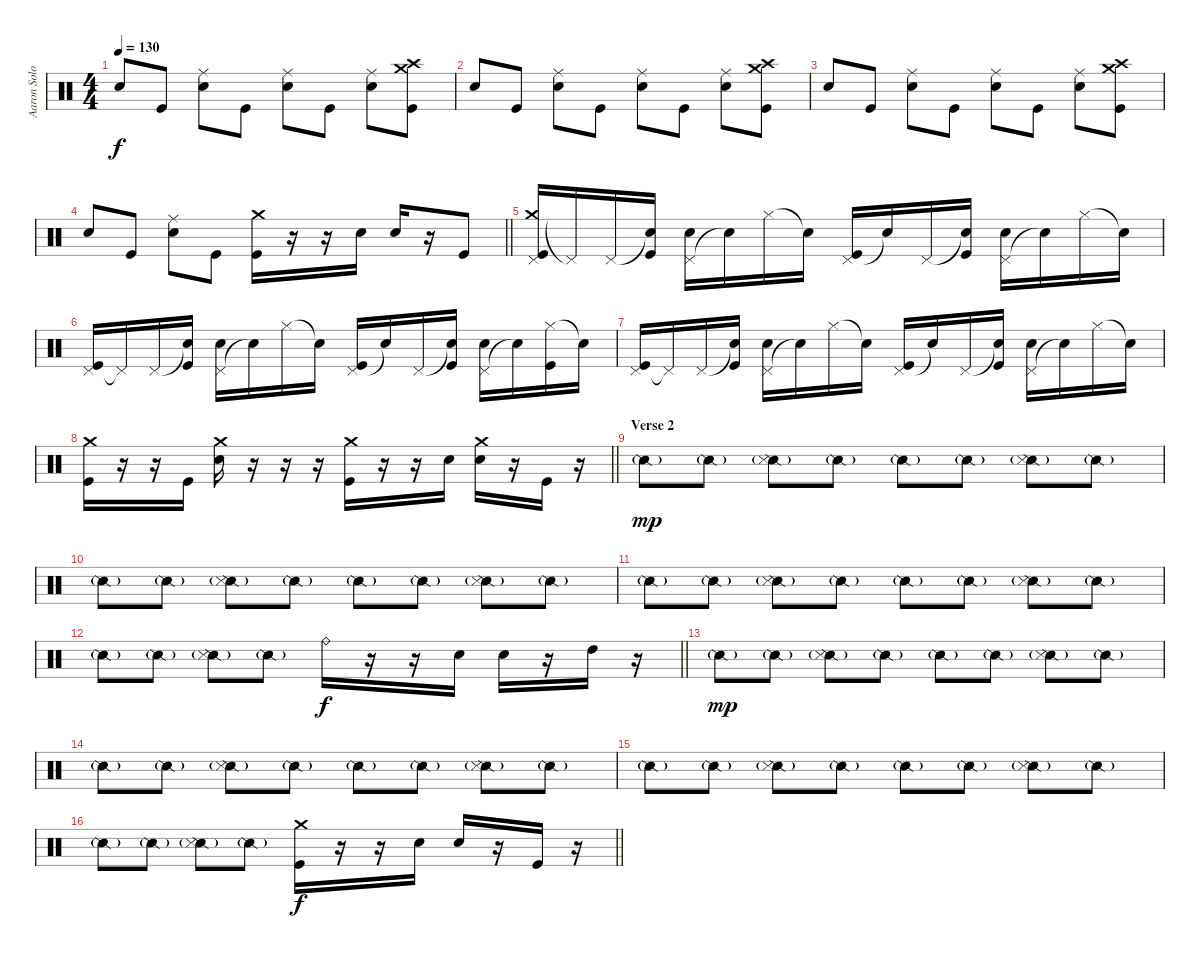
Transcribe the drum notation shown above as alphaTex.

\track ("Aaron Solowoniuk" "Aaron Solo") {instrument percussion}
\staff {score}
\articulation defaults
\ts (4 4)
\tempo 130
\clef neutral
\ks c "Electric Snare (hit)".8{dy f} "Kick (hit)".8
("Ride (middle)" "Electric Snare (hit)").8 "Kick (hit)".8 ("Ride (middle)" "Electric Snare (hit)").8 "Kick (hit)".8 ("Ride (middle)" "Electric Snare (hit)").8 ("Crash medium (hit)" "Crash high (hit)" "Kick (hit)").8 |
"Electric Snare (hit)".8 "Kick (hit)".8 ("Ride (middle)" "Electric Snare (hit)").8 "Kick (hit)".8 ("Ride (middle)" "Electric Snare (hit)").8 "Kick (hit)".8 ("Ride (middle)" "Electric Snare (hit)").8 ("Crash medium (hit)" "Crash high (hit)" "Kick (hit)").8 |
"Electric Snare (hit)".8 "Kick (hit)".8 ("Ride (middle)" "Electric Snare (hit)").8 "Kick (hit)".8 ("Ride (middle)" "Electric Snare (hit)").8 "Kick (hit)".8 ("Ride (middle)" "Electric Snare (hit)").8 ("Crash medium (hit)" "Crash high (hit)" "Kick (hit)").8 |
\barLineRight lightlight "Electric Snare (hit)".8 "Kick (hit)".8
("Ride (middle)" "Electric Snare (hit)").8 "Kick (hit)".8 ("Crash medium (hit)" "Kick (hit)").16 r.16 r.16 "Electric Snare (hit)".16 "Electric Snare (hit)".16 r.16 "Kick (hit)".8 |
\section ("" "")
("Crash medium (hit)" "Pedal Hi-Hat (hit)" "Kick (hit)").16 "Pedal Hi-Hat (hit)"{t}.16 "Pedal Hi-Hat (hit)".16 ("Snare (hit)"{t} "Kick (hit)").16 ("Pedal Hi-Hat (hit)" "Electric Snare (hit)").16 "Snare (hit)"{t}.16 "Hi-Hat (closed)".16 "Snare (hit)"{t}.16 ("Pedal Hi-Hat (hit)" "Kick (hit)").16 "Snare (hit)"{t}.16 "Pedal Hi-Hat (hit)".16 ("Snare (hit)"{t} "Kick (hit)").16 ("Pedal Hi-Hat (hit)" "Electric Snare (hit)").16 "Snare (hit)"{t}.16 "Hi-Hat (closed)".16 "Snare (hit)"{t}.16 |
("Pedal Hi-Hat (hit)" "Kick (hit)").16 "Pedal Hi-Hat (hit)"{t}.16 "Pedal Hi-Hat (hit)".16 ("Snare (hit)"{t} "Kick (hit)").16 ("Pedal Hi-Hat (hit)" "Electric Snare (hit)").16 "Snare (hit)"{t}.16 "Hi-Hat (closed)".16 "Snare (hit)"{t}.16 ("Pedal Hi-Hat (hit)" "Kick (hit)").16 "Snare (hit)"{t}.16 "Pedal Hi-Hat (hit)".16 ("Snare (hit)"{t} "Kick (hit)").16 ("Pedal Hi-Hat (hit)" "Electric Snare (hit)").16 "Snare (hit)"{t}.16 ("Hi-Hat (closed)" "Kick (hit)").16 "Snare (hit)"{t}.16 |
("Pedal Hi-Hat (hit)" "Kick (hit)").16 "Pedal Hi-Hat (hit)"{t}.16 "Pedal Hi-Hat (hit)".16 ("Snare (hit)"{t} "Kick (hit)").16 ("Pedal Hi-Hat (hit)" "Electric Snare (hit)").16 "Snare (hit)"{t}.16 "Hi-Hat (closed)".16 "Snare (hit)"{t}.16 ("Pedal Hi-Hat (hit)" "Kick (hit)").16 "Snare (hit)"{t}.16 "Pedal Hi-Hat (hit)".16 ("Snare (hit)"{t} "Kick (hit)").16 ("Pedal Hi-Hat (hit)" "Electric Snare (hit)").16 "Snare (hit)"{t}.16 "Hi-Hat (closed)".16 "Snare (hit)"{t}.16 |
\barLineRight lightlight
("Crash medium (hit)" "Kick (hit)").16 r.16 r.16 "Kick (hit)".16 ("Crash medium (hit)" "Electric Snare (hit)").16 r.16 r.16 r.16 ("Crash medium (hit)" "Kick (hit)").16 r.16 r.16 "Electric Snare (hit)".16 ("Crash medium (hit)" "Electric Snare (hit)").16 r.16 "Kick (hit)".16 r.16 |
\section ("" "Verse 2")
"Snare (side stick) 2"{g}.8{dy mp} "Snare (side stick) 2"{g}.8 ("Snare (side stick) 2"{g} "Metronome (hit)").8 "Snare (side stick) 2"{g}.8 "Snare (side stick) 2"{g}.8 "Snare (side stick) 2"{g}.8 ("Snare (side stick) 2"{g} "Metronome (hit)").8 "Snare (side stick) 2"{g}.8 |
"Snare (side stick) 2"{g}.8 "Snare (side stick) 2"{g}.8 ("Snare (side stick) 2"{g} "Metronome (hit)").8 "Snare (side stick) 2"{g}.8 "Snare (side stick) 2"{g}.8 "Snare (side stick) 2"{g}.8 ("Snare (side stick) 2"{g} "Metronome (hit)").8 "Snare (side stick) 2"{g}.8 |
"Snare (side stick) 2"{g}.8 "Snare (side stick) 2"{g}.8 ("Snare (side stick) 2"{g} "Metronome (hit)").8 "Snare (side stick) 2"{g}.8 "Snare (side stick) 2"{g}.8 "Snare (side stick) 2"{g}.8 ("Snare (side stick) 2"{g} "Metronome (hit)").8 "Snare (side stick) 2"{g}.8 |
\barLineRight lightlight "Snare (side stick) 2"{g}.8 "Snare (side stick) 2"{g}.8
("Snare (side stick) 2"{g} "Metronome (hit)").8 "Snare (side stick) 2"{g}.8 "Ride (bell)".16{dy f} r.16 r.16 "Electric Snare (hit)".16 "Electric Snare (hit)".16 r.16 "High Tom (hit)".16 r.16 |
"Snare (side stick) 2"{g}.8{dy mp} "Snare (side stick) 2"{g}.8 ("Snare (side stick) 2"{g} "Metronome (hit)").8 "Snare (side stick) 2"{g}.8 "Snare (side stick) 2"{g}.8 "Snare (side stick) 2"{g}.8 ("Snare (side stick) 2"{g} "Metronome (hit)").8 "Snare (side stick) 2"{g}.8 |
"Snare (side stick) 2"{g}.8 "Snare (side stick) 2"{g}.8 ("Snare (side stick) 2"{g} "Metronome (hit)").8 "Snare (side stick) 2"{g}.8 "Snare (side stick) 2"{g}.8 "Snare (side stick) 2"{g}.8 ("Snare (side stick) 2"{g} "Metronome (hit)").8 "Snare (side stick) 2"{g}.8 |
"Snare (side stick) 2"{g}.8 "Snare (side stick) 2"{g}.8 ("Snare (side stick) 2"{g} "Metronome (hit)").8 "Snare (side stick) 2"{g}.8 "Snare (side stick) 2"{g}.8 "Snare (side stick) 2"{g}.8 ("Snare (side stick) 2"{g} "Metronome (hit)").8 "Snare (side stick) 2"{g}.8 |
\barLineRight lightlight "Snare (side stick) 2"{g}.8 "Snare (side stick) 2"{g}.8
("Snare (side stick) 2"{g} "Metronome (hit)").8 "Snare (side stick) 2"{g}.8 ("Crash medium (hit)" "Kick (hit)").16{dy f} r.16 r.16 "Electric Snare (hit)".16 "Electric Snare (hit)".16 r.16 "Kick (hit)".16 r.16
